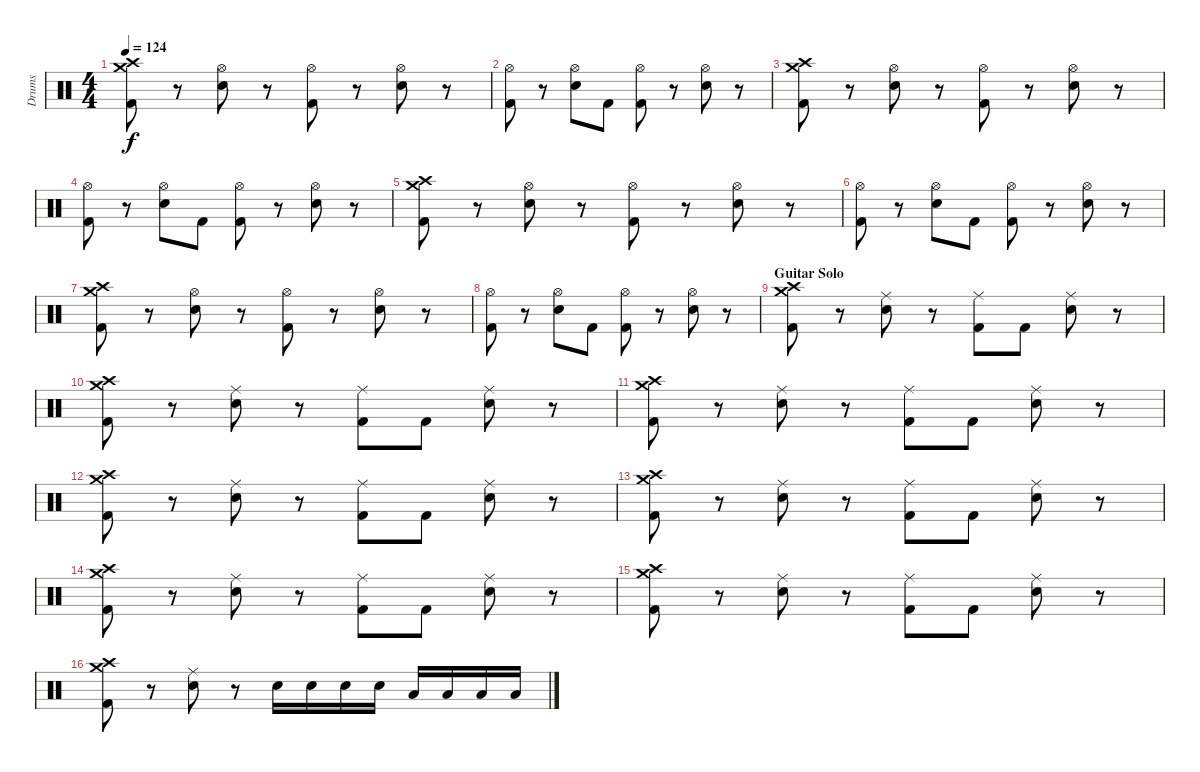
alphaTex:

\track ("Drums" "Drums") {instrument percussion}
\staff {score}
\articulation defaults
\ts (4 4)
\tempo 124
\clef neutral
\ks c
("Crash medium (hit)" "Crash high (hit)" "Kick (hit) 2").8{dy f} r.8 ("Hi-Hat (open)" "Snare (hit) 2").8 r.8 ("Hi-Hat (open)" "Kick (hit) 2").8 r.8 ("Hi-Hat (open)" "Snare (hit) 2").8 r.8 |
("Hi-Hat (open)" "Kick (hit) 2").8 r.8 ("Hi-Hat (open)" "Snare (hit) 2").8 "Kick (hit) 2".8 ("Hi-Hat (open)" "Kick (hit) 2").8 r.8 ("Hi-Hat (open)" "Snare (hit) 2").8 r.8 |
("Crash medium (hit)" "Crash high (hit)" "Kick (hit) 2").8 r.8 ("Hi-Hat (open)" "Snare (hit) 2").8 r.8 ("Hi-Hat (open)" "Kick (hit) 2").8 r.8 ("Hi-Hat (open)" "Snare (hit) 2").8 r.8 |
("Hi-Hat (open)" "Kick (hit) 2").8 r.8 ("Hi-Hat (open)" "Snare (hit) 2").8 "Kick (hit) 2".8 ("Hi-Hat (open)" "Kick (hit) 2").8 r.8 ("Hi-Hat (open)" "Snare (hit) 2").8 r.8 |
("Crash medium (hit)" "Crash high (hit)" "Kick (hit) 2").8 r.8 ("Hi-Hat (open)" "Snare (hit) 2").8 r.8 ("Hi-Hat (open)" "Kick (hit) 2").8 r.8 ("Hi-Hat (open)" "Snare (hit) 2").8 r.8 |
("Hi-Hat (open)" "Kick (hit) 2").8 r.8 ("Hi-Hat (open)" "Snare (hit) 2").8 "Kick (hit) 2".8 ("Hi-Hat (open)" "Kick (hit) 2").8 r.8 ("Hi-Hat (open)" "Snare (hit) 2").8 r.8 |
("Crash medium (hit)" "Crash high (hit)" "Kick (hit) 2").8 r.8 ("Hi-Hat (open)" "Snare (hit) 2").8 r.8 ("Hi-Hat (open)" "Kick (hit) 2").8 r.8 ("Hi-Hat (open)" "Snare (hit) 2").8 r.8 |
("Hi-Hat (open)" "Kick (hit) 2").8 r.8 ("Hi-Hat (open)" "Snare (hit) 2").8 "Kick (hit) 2".8 ("Hi-Hat (open)" "Kick (hit) 2").8 r.8 ("Hi-Hat (open)" "Snare (hit) 2").8 r.8 |
\section ("" "Guitar Solo")
("Crash medium (hit)" "Crash high (hit)" "Kick (hit) 2").8 r.8 ("Ride (middle)" "Snare (hit) 2").8 r.8 ("Ride (middle)" "Kick (hit) 2").8 "Kick (hit) 2".8 ("Ride (middle)" "Snare (hit) 2").8 r.8 |
("Crash medium (hit)" "Crash high (hit)" "Kick (hit) 2").8 r.8 ("Ride (middle)" "Snare (hit) 2").8 r.8 ("Ride (middle)" "Kick (hit) 2").8 "Kick (hit) 2".8 ("Ride (middle)" "Snare (hit) 2").8 r.8 |
("Crash medium (hit)" "Crash high (hit)" "Kick (hit) 2").8 r.8 ("Ride (middle)" "Snare (hit) 2").8 r.8 ("Ride (middle)" "Kick (hit) 2").8 "Kick (hit) 2".8 ("Ride (middle)" "Snare (hit) 2").8 r.8 |
("Crash medium (hit)" "Crash high (hit)" "Kick (hit) 2").8 r.8 ("Ride (middle)" "Snare (hit) 2").8 r.8 ("Ride (middle)" "Kick (hit) 2").8 "Kick (hit) 2".8 ("Ride (middle)" "Snare (hit) 2").8 r.8 |
("Crash medium (hit)" "Crash high (hit)" "Kick (hit) 2").8 r.8 ("Ride (middle)" "Snare (hit) 2").8 r.8 ("Ride (middle)" "Kick (hit) 2").8 "Kick (hit) 2".8 ("Ride (middle)" "Snare (hit) 2").8 r.8 |
("Crash medium (hit)" "Crash high (hit)" "Kick (hit) 2").8 r.8 ("Ride (middle)" "Snare (hit) 2").8 r.8 ("Ride (middle)" "Kick (hit) 2").8 "Kick (hit) 2".8 ("Ride (middle)" "Snare (hit) 2").8 r.8 |
("Crash medium (hit)" "Crash high (hit)" "Kick (hit) 2").8 r.8 ("Ride (middle)" "Snare (hit) 2").8 r.8 ("Ride (middle)" "Kick (hit) 2").8 "Kick (hit) 2".8 ("Ride (middle)" "Snare (hit) 2").8 r.8 |
("Crash medium (hit)" "Crash high (hit)" "Kick (hit) 2").8 r.8 ("Ride (middle)" "Snare (hit) 2").8 r.8 "Snare (hit) 2".16 "Snare (hit) 2".16 "Snare (hit) 2".16 "Snare (hit) 2".16 "Low Tom (hit)".16 "Low Tom (hit)".16 "Low Tom (hit)".16 "Low Tom (hit)".16
